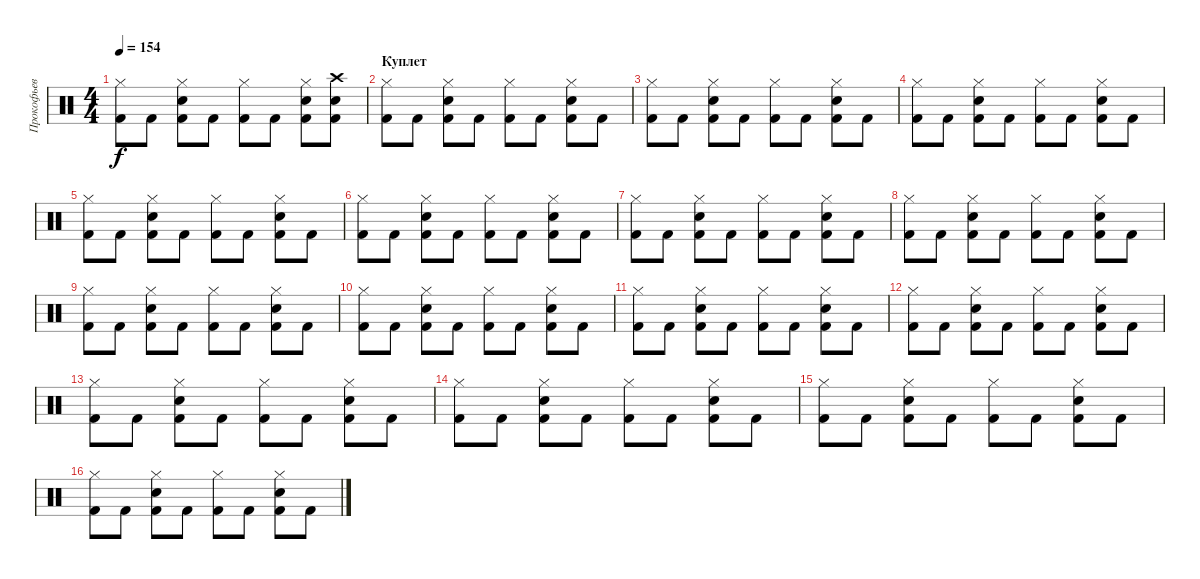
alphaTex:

\track ("Прокофьев" "Прокофьев") {instrument percussion}
\staff {score}
\articulation defaults
\ts (4 4)
\tempo 154
\clef neutral
\ks c
("Hi-Hat (closed)" "Kick (hit) 2").8{dy f} "Kick (hit) 2".8 ("Hi-Hat (closed)" "Snare (hit) 2" "Kick (hit) 2").8 "Kick (hit) 2".8 ("Hi-Hat (closed)" "Kick (hit) 2").8 "Kick (hit) 2".8 ("Hi-Hat (closed)" "Snare (hit) 2" "Kick (hit) 2").8 ("Crash high (hit)" "Snare (hit) 2" "Kick (hit) 2").8 |
\section ("" "Куплет")
("Hi-Hat (closed)" "Kick (hit) 2").8 "Kick (hit) 2".8 ("Hi-Hat (closed)" "Snare (hit) 2" "Kick (hit) 2").8 "Kick (hit) 2".8 ("Hi-Hat (closed)" "Kick (hit) 2").8 "Kick (hit) 2".8 ("Hi-Hat (closed)" "Snare (hit) 2" "Kick (hit) 2").8 "Kick (hit) 2".8 |
("Hi-Hat (closed)" "Kick (hit) 2").8 "Kick (hit) 2".8 ("Hi-Hat (closed)" "Snare (hit) 2" "Kick (hit) 2").8 "Kick (hit) 2".8 ("Hi-Hat (closed)" "Kick (hit) 2").8 "Kick (hit) 2".8 ("Hi-Hat (closed)" "Snare (hit) 2" "Kick (hit) 2").8 "Kick (hit) 2".8 |
("Hi-Hat (closed)" "Kick (hit) 2").8 "Kick (hit) 2".8 ("Hi-Hat (closed)" "Snare (hit) 2" "Kick (hit) 2").8 "Kick (hit) 2".8 ("Hi-Hat (closed)" "Kick (hit) 2").8 "Kick (hit) 2".8 ("Hi-Hat (closed)" "Snare (hit) 2" "Kick (hit) 2").8 "Kick (hit) 2".8 |
("Hi-Hat (closed)" "Kick (hit) 2").8 "Kick (hit) 2".8 ("Hi-Hat (closed)" "Snare (hit) 2" "Kick (hit) 2").8 "Kick (hit) 2".8 ("Hi-Hat (closed)" "Kick (hit) 2").8 "Kick (hit) 2".8 ("Hi-Hat (closed)" "Snare (hit) 2" "Kick (hit) 2").8 "Kick (hit) 2".8 |
("Hi-Hat (closed)" "Kick (hit) 2").8 "Kick (hit) 2".8 ("Hi-Hat (closed)" "Snare (hit) 2" "Kick (hit) 2").8 "Kick (hit) 2".8 ("Hi-Hat (closed)" "Kick (hit) 2").8 "Kick (hit) 2".8 ("Hi-Hat (closed)" "Snare (hit) 2" "Kick (hit) 2").8 "Kick (hit) 2".8 |
("Hi-Hat (closed)" "Kick (hit) 2").8 "Kick (hit) 2".8 ("Hi-Hat (closed)" "Snare (hit) 2" "Kick (hit) 2").8 "Kick (hit) 2".8 ("Hi-Hat (closed)" "Kick (hit) 2").8 "Kick (hit) 2".8 ("Hi-Hat (closed)" "Snare (hit) 2" "Kick (hit) 2").8 "Kick (hit) 2".8 |
("Hi-Hat (closed)" "Kick (hit) 2").8 "Kick (hit) 2".8 ("Hi-Hat (closed)" "Snare (hit) 2" "Kick (hit) 2").8 "Kick (hit) 2".8 ("Hi-Hat (closed)" "Kick (hit) 2").8 "Kick (hit) 2".8 ("Hi-Hat (closed)" "Snare (hit) 2" "Kick (hit) 2").8 "Kick (hit) 2".8 |
("Hi-Hat (closed)" "Kick (hit) 2").8 "Kick (hit) 2".8 ("Hi-Hat (closed)" "Snare (hit) 2" "Kick (hit) 2").8 "Kick (hit) 2".8 ("Hi-Hat (closed)" "Kick (hit) 2").8 "Kick (hit) 2".8 ("Hi-Hat (closed)" "Snare (hit) 2" "Kick (hit) 2").8 "Kick (hit) 2".8 |
("Hi-Hat (closed)" "Kick (hit) 2").8 "Kick (hit) 2".8 ("Hi-Hat (closed)" "Snare (hit) 2" "Kick (hit) 2").8 "Kick (hit) 2".8 ("Hi-Hat (closed)" "Kick (hit) 2").8 "Kick (hit) 2".8 ("Hi-Hat (closed)" "Snare (hit) 2" "Kick (hit) 2").8 "Kick (hit) 2".8 |
("Hi-Hat (closed)" "Kick (hit) 2").8 "Kick (hit) 2".8 ("Hi-Hat (closed)" "Snare (hit) 2" "Kick (hit) 2").8 "Kick (hit) 2".8 ("Hi-Hat (closed)" "Kick (hit) 2").8 "Kick (hit) 2".8 ("Hi-Hat (closed)" "Snare (hit) 2" "Kick (hit) 2").8 "Kick (hit) 2".8 |
("Hi-Hat (closed)" "Kick (hit) 2").8 "Kick (hit) 2".8 ("Hi-Hat (closed)" "Snare (hit) 2" "Kick (hit) 2").8 "Kick (hit) 2".8 ("Hi-Hat (closed)" "Kick (hit) 2").8 "Kick (hit) 2".8 ("Hi-Hat (closed)" "Snare (hit) 2" "Kick (hit) 2").8 "Kick (hit) 2".8 |
("Hi-Hat (closed)" "Kick (hit) 2").8 "Kick (hit) 2".8 ("Hi-Hat (closed)" "Snare (hit) 2" "Kick (hit) 2").8 "Kick (hit) 2".8 ("Hi-Hat (closed)" "Kick (hit) 2").8 "Kick (hit) 2".8 ("Hi-Hat (closed)" "Snare (hit) 2" "Kick (hit) 2").8 "Kick (hit) 2".8 |
("Hi-Hat (closed)" "Kick (hit) 2").8 "Kick (hit) 2".8 ("Hi-Hat (closed)" "Snare (hit) 2" "Kick (hit) 2").8 "Kick (hit) 2".8 ("Hi-Hat (closed)" "Kick (hit) 2").8 "Kick (hit) 2".8 ("Hi-Hat (closed)" "Snare (hit) 2" "Kick (hit) 2").8 "Kick (hit) 2".8 |
("Hi-Hat (closed)" "Kick (hit) 2").8 "Kick (hit) 2".8 ("Hi-Hat (closed)" "Snare (hit) 2" "Kick (hit) 2").8 "Kick (hit) 2".8 ("Hi-Hat (closed)" "Kick (hit) 2").8 "Kick (hit) 2".8 ("Hi-Hat (closed)" "Snare (hit) 2" "Kick (hit) 2").8 "Kick (hit) 2".8 |
("Hi-Hat (closed)" "Kick (hit) 2").8 "Kick (hit) 2".8 ("Hi-Hat (closed)" "Snare (hit) 2" "Kick (hit) 2").8 "Kick (hit) 2".8 ("Hi-Hat (closed)" "Kick (hit) 2").8 "Kick (hit) 2".8 ("Hi-Hat (closed)" "Snare (hit) 2" "Kick (hit) 2").8 "Kick (hit) 2".8
